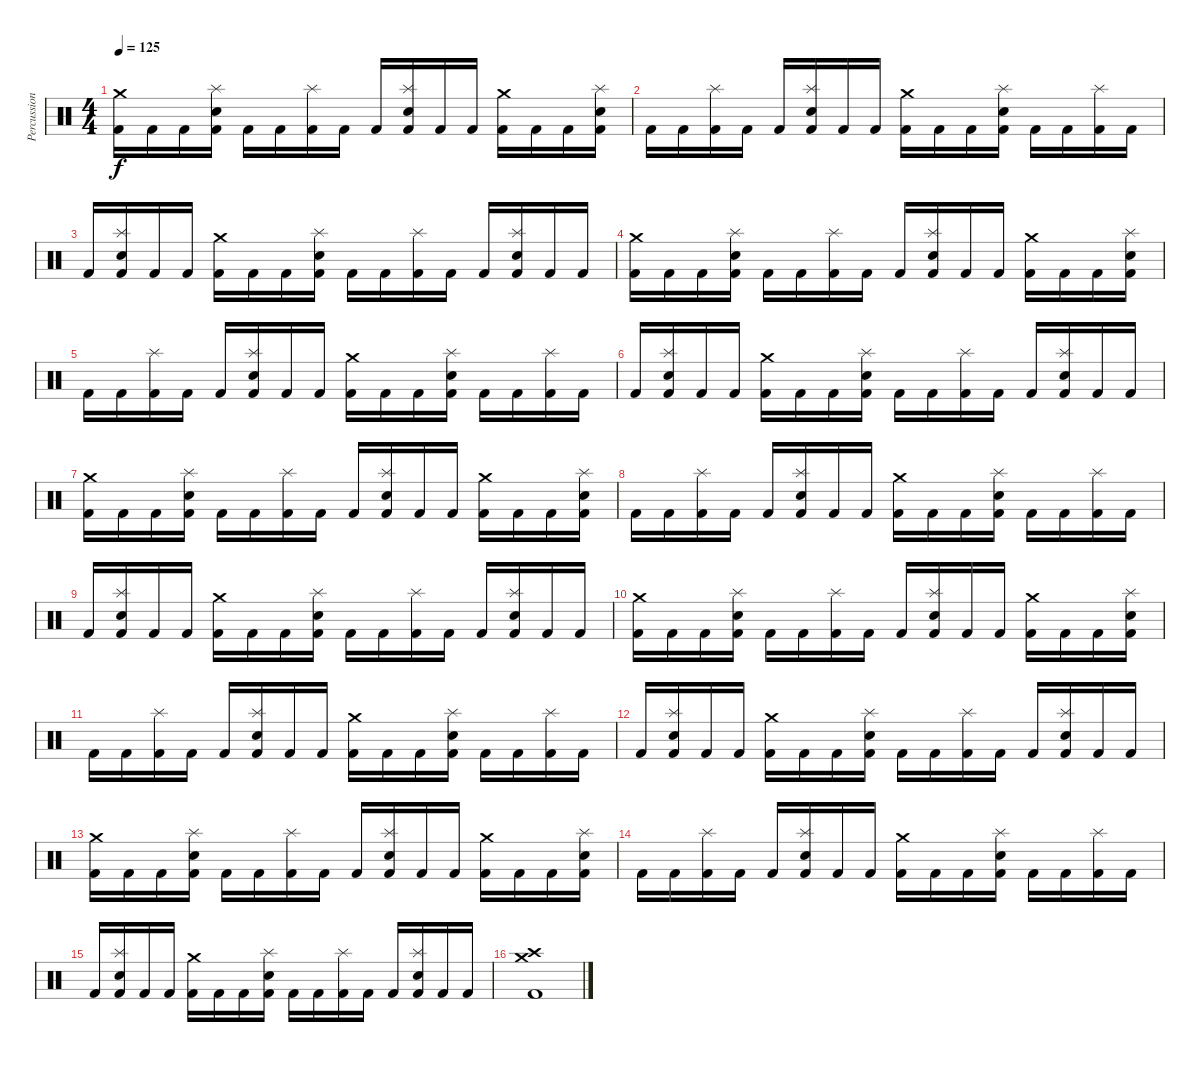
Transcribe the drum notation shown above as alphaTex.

\track ("Percussion" "Percussion") {instrument percussion}
\staff {score}
\articulation defaults
\ts (4 4)
\tempo 125
\clef neutral
\ks c
("Crash medium (hit)" "Kick (hit) 2").16{dy f} "Kick (hit) 2".16 "Kick (hit) 2".16 ("Splash (hit)" "Electric Snare (hit)" "Kick (hit) 2").16 "Kick (hit) 2".16 "Kick (hit) 2".16 ("Splash (hit)" "Kick (hit) 2").16 "Kick (hit) 2".16 "Kick (hit) 2".16 ("Splash (hit)" "Electric Snare (hit)" "Kick (hit) 2").16 "Kick (hit) 2".16 "Kick (hit) 2".16 ("Crash medium (hit)" "Kick (hit) 2").16 "Kick (hit) 2".16 "Kick (hit) 2".16 ("Splash (hit)" "Electric Snare (hit)" "Kick (hit) 2").16 |
"Kick (hit) 2".16 "Kick (hit) 2".16 ("Splash (hit)" "Kick (hit) 2").16 "Kick (hit) 2".16 "Kick (hit) 2".16 ("Splash (hit)" "Electric Snare (hit)" "Kick (hit) 2").16 "Kick (hit) 2".16 "Kick (hit) 2".16 ("Crash medium (hit)" "Kick (hit) 2").16 "Kick (hit) 2".16 "Kick (hit) 2".16 ("Splash (hit)" "Electric Snare (hit)" "Kick (hit) 2").16 "Kick (hit) 2".16 "Kick (hit) 2".16 ("Splash (hit)" "Kick (hit) 2").16 "Kick (hit) 2".16 |
"Kick (hit) 2".16 ("Splash (hit)" "Electric Snare (hit)" "Kick (hit) 2").16 "Kick (hit) 2".16 "Kick (hit) 2".16 ("Crash medium (hit)" "Kick (hit) 2").16 "Kick (hit) 2".16 "Kick (hit) 2".16 ("Splash (hit)" "Electric Snare (hit)" "Kick (hit) 2").16 "Kick (hit) 2".16 "Kick (hit) 2".16 ("Splash (hit)" "Kick (hit) 2").16 "Kick (hit) 2".16 "Kick (hit) 2".16 ("Splash (hit)" "Electric Snare (hit)" "Kick (hit) 2").16 "Kick (hit) 2".16 "Kick (hit) 2".16 |
("Crash medium (hit)" "Kick (hit) 2").16 "Kick (hit) 2".16 "Kick (hit) 2".16 ("Splash (hit)" "Electric Snare (hit)" "Kick (hit) 2").16 "Kick (hit) 2".16 "Kick (hit) 2".16 ("Splash (hit)" "Kick (hit) 2").16 "Kick (hit) 2".16 "Kick (hit) 2".16 ("Splash (hit)" "Electric Snare (hit)" "Kick (hit) 2").16 "Kick (hit) 2".16 "Kick (hit) 2".16 ("Crash medium (hit)" "Kick (hit) 2").16 "Kick (hit) 2".16 "Kick (hit) 2".16 ("Splash (hit)" "Electric Snare (hit)" "Kick (hit) 2").16 |
"Kick (hit) 2".16 "Kick (hit) 2".16 ("Splash (hit)" "Kick (hit) 2").16 "Kick (hit) 2".16 "Kick (hit) 2".16 ("Splash (hit)" "Electric Snare (hit)" "Kick (hit) 2").16 "Kick (hit) 2".16 "Kick (hit) 2".16 ("Crash medium (hit)" "Kick (hit) 2").16 "Kick (hit) 2".16 "Kick (hit) 2".16 ("Splash (hit)" "Electric Snare (hit)" "Kick (hit) 2").16 "Kick (hit) 2".16 "Kick (hit) 2".16 ("Splash (hit)" "Kick (hit) 2").16 "Kick (hit) 2".16 |
"Kick (hit) 2".16 ("Splash (hit)" "Electric Snare (hit)" "Kick (hit) 2").16 "Kick (hit) 2".16 "Kick (hit) 2".16 ("Crash medium (hit)" "Kick (hit) 2").16 "Kick (hit) 2".16 "Kick (hit) 2".16 ("Splash (hit)" "Electric Snare (hit)" "Kick (hit) 2").16 "Kick (hit) 2".16 "Kick (hit) 2".16 ("Splash (hit)" "Kick (hit) 2").16 "Kick (hit) 2".16 "Kick (hit) 2".16 ("Splash (hit)" "Electric Snare (hit)" "Kick (hit) 2").16 "Kick (hit) 2".16 "Kick (hit) 2".16 |
("Crash medium (hit)" "Kick (hit) 2").16 "Kick (hit) 2".16 "Kick (hit) 2".16 ("Splash (hit)" "Electric Snare (hit)" "Kick (hit) 2").16 "Kick (hit) 2".16 "Kick (hit) 2".16 ("Splash (hit)" "Kick (hit) 2").16 "Kick (hit) 2".16 "Kick (hit) 2".16 ("Splash (hit)" "Electric Snare (hit)" "Kick (hit) 2").16 "Kick (hit) 2".16 "Kick (hit) 2".16 ("Crash medium (hit)" "Kick (hit) 2").16 "Kick (hit) 2".16 "Kick (hit) 2".16 ("Splash (hit)" "Electric Snare (hit)" "Kick (hit) 2").16 |
"Kick (hit) 2".16 "Kick (hit) 2".16 ("Splash (hit)" "Kick (hit) 2").16 "Kick (hit) 2".16 "Kick (hit) 2".16 ("Splash (hit)" "Electric Snare (hit)" "Kick (hit) 2").16 "Kick (hit) 2".16 "Kick (hit) 2".16 ("Crash medium (hit)" "Kick (hit) 2").16 "Kick (hit) 2".16 "Kick (hit) 2".16 ("Splash (hit)" "Electric Snare (hit)" "Kick (hit) 2").16 "Kick (hit) 2".16 "Kick (hit) 2".16 ("Splash (hit)" "Kick (hit) 2").16 "Kick (hit) 2".16 |
"Kick (hit) 2".16 ("Splash (hit)" "Electric Snare (hit)" "Kick (hit) 2").16 "Kick (hit) 2".16 "Kick (hit) 2".16 ("Crash medium (hit)" "Kick (hit) 2").16 "Kick (hit) 2".16 "Kick (hit) 2".16 ("Splash (hit)" "Electric Snare (hit)" "Kick (hit) 2").16 "Kick (hit) 2".16 "Kick (hit) 2".16 ("Splash (hit)" "Kick (hit) 2").16 "Kick (hit) 2".16 "Kick (hit) 2".16 ("Splash (hit)" "Electric Snare (hit)" "Kick (hit) 2").16 "Kick (hit) 2".16 "Kick (hit) 2".16 |
("Crash medium (hit)" "Kick (hit) 2").16 "Kick (hit) 2".16 "Kick (hit) 2".16 ("Splash (hit)" "Electric Snare (hit)" "Kick (hit) 2").16 "Kick (hit) 2".16 "Kick (hit) 2".16 ("Splash (hit)" "Kick (hit) 2").16 "Kick (hit) 2".16 "Kick (hit) 2".16 ("Splash (hit)" "Electric Snare (hit)" "Kick (hit) 2").16 "Kick (hit) 2".16 "Kick (hit) 2".16 ("Crash medium (hit)" "Kick (hit) 2").16 "Kick (hit) 2".16 "Kick (hit) 2".16 ("Splash (hit)" "Electric Snare (hit)" "Kick (hit) 2").16 |
"Kick (hit) 2".16 "Kick (hit) 2".16 ("Splash (hit)" "Kick (hit) 2").16 "Kick (hit) 2".16 "Kick (hit) 2".16 ("Splash (hit)" "Electric Snare (hit)" "Kick (hit) 2").16 "Kick (hit) 2".16 "Kick (hit) 2".16 ("Crash medium (hit)" "Kick (hit) 2").16 "Kick (hit) 2".16 "Kick (hit) 2".16 ("Splash (hit)" "Electric Snare (hit)" "Kick (hit) 2").16 "Kick (hit) 2".16 "Kick (hit) 2".16 ("Splash (hit)" "Kick (hit) 2").16 "Kick (hit) 2".16 |
"Kick (hit) 2".16 ("Splash (hit)" "Electric Snare (hit)" "Kick (hit) 2").16 "Kick (hit) 2".16 "Kick (hit) 2".16 ("Crash medium (hit)" "Kick (hit) 2").16 "Kick (hit) 2".16 "Kick (hit) 2".16 ("Splash (hit)" "Electric Snare (hit)" "Kick (hit) 2").16 "Kick (hit) 2".16 "Kick (hit) 2".16 ("Splash (hit)" "Kick (hit) 2").16 "Kick (hit) 2".16 "Kick (hit) 2".16 ("Splash (hit)" "Electric Snare (hit)" "Kick (hit) 2").16 "Kick (hit) 2".16 "Kick (hit) 2".16 |
("Crash medium (hit)" "Kick (hit) 2").16 "Kick (hit) 2".16 "Kick (hit) 2".16 ("Splash (hit)" "Electric Snare (hit)" "Kick (hit) 2").16 "Kick (hit) 2".16 "Kick (hit) 2".16 ("Splash (hit)" "Kick (hit) 2").16 "Kick (hit) 2".16 "Kick (hit) 2".16 ("Splash (hit)" "Electric Snare (hit)" "Kick (hit) 2").16 "Kick (hit) 2".16 "Kick (hit) 2".16 ("Crash medium (hit)" "Kick (hit) 2").16 "Kick (hit) 2".16 "Kick (hit) 2".16 ("Splash (hit)" "Electric Snare (hit)" "Kick (hit) 2").16 |
"Kick (hit) 2".16 "Kick (hit) 2".16 ("Splash (hit)" "Kick (hit) 2").16 "Kick (hit) 2".16 "Kick (hit) 2".16 ("Splash (hit)" "Electric Snare (hit)" "Kick (hit) 2").16 "Kick (hit) 2".16 "Kick (hit) 2".16 ("Crash medium (hit)" "Kick (hit) 2").16 "Kick (hit) 2".16 "Kick (hit) 2".16 ("Splash (hit)" "Electric Snare (hit)" "Kick (hit) 2").16 "Kick (hit) 2".16 "Kick (hit) 2".16 ("Splash (hit)" "Kick (hit) 2").16 "Kick (hit) 2".16 |
"Kick (hit) 2".16 ("Splash (hit)" "Electric Snare (hit)" "Kick (hit) 2").16 "Kick (hit) 2".16 "Kick (hit) 2".16 ("Crash medium (hit)" "Kick (hit) 2").16 "Kick (hit) 2".16 "Kick (hit) 2".16 ("Splash (hit)" "Electric Snare (hit)" "Kick (hit) 2").16 "Kick (hit) 2".16 "Kick (hit) 2".16 ("Splash (hit)" "Kick (hit) 2").16 "Kick (hit) 2".16 "Kick (hit) 2".16 ("Splash (hit)" "Electric Snare (hit)" "Kick (hit) 2").16 "Kick (hit) 2".16 "Kick (hit) 2".16 |
("Crash medium (hit)" "Crash high (hit)" "Kick (hit) 2").1
